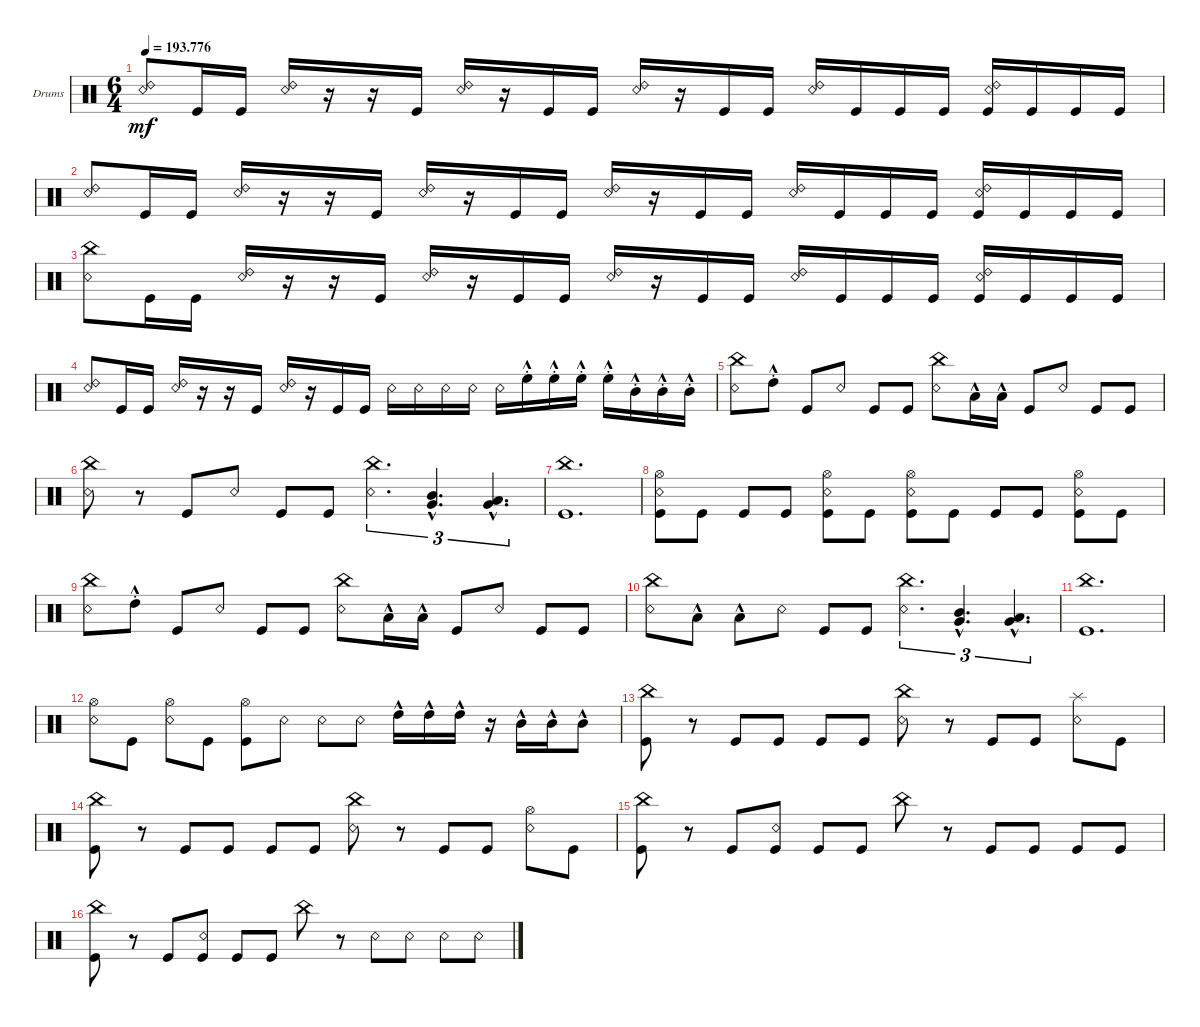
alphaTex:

\defaultSystemsLayout 4
\bracketExtendMode groupsimilarinstruments
\firstSystemTrackNameOrientation horizontal
\otherSystemsTrackNameOrientation horizontal
\track ("Drumkit" "Drums") {mute multiBarRest instrument percussion}
\staff {score}
\articulation defaults
\ts (6 4)
\tempo
193.776
\accidentals auto
\clef neutral
\ottava regular
\simile none
\scale
0.333333
\ks c
("Snare (rim shot)" "Ride (bell) 2").8{dy mf} "Kick (hit)".16 "Kick (hit)".16 ("Snare (rim shot)" "Ride (bell) 2").16 r.16 r.16 "Kick (hit)".16 ("Ride (bell) 2" "Snare (rim shot)").16 r.16 "Kick (hit)".16 "Kick (hit)".16 ("Snare (rim shot)" "Ride (bell) 2").16 r.16 "Kick (hit)".16 "Kick (hit)".16 ("Snare (rim shot)" "Ride (bell) 2").16 "Kick (hit)".16 "Kick (hit)".16 "Kick (hit)".16 ("Kick (hit)" "Snare (rim shot)" "Ride (bell) 2").16 "Kick (hit)".16 "Kick (hit)".16 "Kick (hit)".16 |
\scale
0.333333 ("Snare (rim shot)" "Ride (bell) 2").8 "Kick (hit)".16 "Kick (hit)".16 ("Snare (rim shot)" "Ride (bell) 2").16 r.16 r.16 "Kick (hit)".16 ("Ride (bell) 2" "Snare (rim shot)").16 r.16 "Kick (hit)".16 "Kick (hit)".16 ("Snare (rim shot)" "Ride (bell) 2").16 r.16 "Kick (hit)".16 "Kick (hit)".16 ("Snare (rim shot)" "Ride (bell) 2").16 "Kick (hit)".16 "Kick (hit)".16 "Kick (hit)".16 ("Kick (hit)" "Snare (rim shot)" "Ride (bell) 2").16 "Kick (hit)".16 "Kick (hit)".16 "Kick (hit)".16 |
\scale
0.333333 ("Snare (rim shot)" "China (hit)").8 "Kick (hit)".16 "Kick (hit)".16 ("Snare (rim shot)" "Ride (bell) 2").16 r.16 r.16 "Kick (hit)".16 ("Ride (bell) 2" "Snare (rim shot)").16 r.16 "Kick (hit)".16 "Kick (hit)".16 ("Snare (rim shot)" "Ride (bell) 2").16 r.16 "Kick (hit)".16 "Kick (hit)".16 ("Snare (rim shot)" "Ride (bell) 2").16 "Kick (hit)".16 "Kick (hit)".16 "Kick (hit)".16 ("Kick (hit)" "Snare (rim shot)" "Ride (bell) 2").16 "Kick (hit)".16 "Kick (hit)".16 "Kick (hit)".16 |
\scale
0.333333 ("Snare (rim shot)" "Ride (bell) 2").8 "Kick (hit)".16 "Kick (hit)".16 ("Snare (rim shot)" "Ride (bell) 2").16 r.16 r.16 "Kick (hit)".16 ("Ride (bell) 2" "Snare (rim shot)").16 r.16 "Kick (hit)".16 "Kick (hit)".16 "Snare (rim shot)".16 "Snare (rim shot)".16 "Snare (rim shot)".16 "Snare (rim shot)".16 "Snare (rim shot)".16 "High Floor Tom (hit)"{hac st}.16 "High Floor Tom (hit)"{hac st}.16 "High Floor Tom (hit)"{hac st}.16 "High Floor Tom (hit)"{hac st}.16 "Mid Tom (hit)"{hac st}.16 "Mid Tom (hit)"{hac st}.16 "Mid Tom (hit)"{hac st}.16 |
\scale
0.333333 ("China (hit)" "Snare (rim shot)").8 "High Tom (hit)"{hac st}.8 "Kick (hit)".8 "Snare (rim shot)".8 "Kick (hit)".8 "Kick (hit)".8 ("China (hit)" "Snare (rim shot)").8 "Low Tom (hit)"{hac}.16 "Low Tom (hit)"{hac}.16 "Kick (hit)".8 "Snare (rim shot)".8 "Kick (hit)".8 "Kick (hit)".8 |
\scale
0.333333 ("China (hit)" "Snare (rim shot)").8 r.8 "Kick (hit)".8 "Snare (rim shot)".8 "Kick (hit)".8 "Kick (hit)".8 ("China (hit)" "Snare (rim shot)").4{d tu (3 2)} ("Very Low Tom (hit)"{hac} "Mid Tom (hit)"{hac}).4{d tu (3 2)} ("Very Low Tom (hit)"{hac} "Low Tom (hit)"{hac}).4{d tu (3 2)} |
\scale
0.333333 ("Kick (hit)" "China (hit)").1{d} |
\scale
0.333333 ("Snare (rim shot)" "Kick (hit)" "Hi-Hat (open)").8 "Kick (hit)".8 "Kick (hit)".8 "Kick (hit)".8 ("Kick (hit)" "Snare (rim shot)" "Hi-Hat (open)").8 "Kick (hit)".8 ("Snare (rim shot)" "Kick (hit)" "Hi-Hat (open)").8 "Kick (hit)".8 "Kick (hit)".8 "Kick (hit)".8 ("Kick (hit)" "Snare (rim shot)" "Hi-Hat (open)").8 "Kick (hit)".8 |
\scale
0.333333 ("China (hit)" "Snare (rim shot)").8 "High Tom (hit)"{hac st}.8 "Kick (hit)".8 "Snare (rim shot)".8 "Kick (hit)".8 "Kick (hit)".8 ("China (hit)" "Snare (rim shot)").8 "Low Tom (hit)"{hac}.16 "Low Tom (hit)"{hac}.16 "Kick (hit)".8 "Snare (rim shot)".8 "Kick (hit)".8 "Kick (hit)".8 |
\scale
0.333333 ("China (hit)" "Snare (rim shot)").8 "Low Tom (hit)"{hac}.8 "Low Tom (hit)"{hac}.8 "Snare (rim shot)".8 "Kick (hit)".8 "Kick (hit)".8 ("China (hit)" "Snare (rim shot)").4{d tu (3 2)} ("Very Low Tom (hit)"{hac} "Mid Tom (hit)"{hac}).4{d tu (3 2)} ("Very Low Tom (hit)"{hac} "Low Tom (hit)"{hac}).4{d tu (3 2)} |
\scale
0.333333 ("Kick (hit)" "China (hit)").1{d} |
\scale
0.333333 ("Snare (rim shot)" "Hi-Hat (open)").8 "Kick (hit)".8 ("Snare (rim shot)" "Hi-Hat (open)").8 "Kick (hit)".8 ("Kick (hit)" "Hi-Hat (open)").8 "Snare (rim shot)".8 "Snare (rim shot)".8 "Snare (rim shot)".8 "High Tom (hit)"{hac}.16 "High Tom (hit)"{hac}.16 "High Tom (hit)"{hac}.16 r.16 "Mid Tom (hit)"{hac}.16 "Mid Tom (hit)"{hac}.16 "Mid Tom (hit)"{hac}.8 |
("China (hit)" "Kick (hit)").8 r.8 "Kick (hit)".8 "Kick (hit)".8 "Kick (hit)".8 "Kick (hit)".8 ("Snare (rim shot)" "China (hit)").8 r.8 "Kick (hit)".8 "Kick (hit)".8 ("Snare (rim shot)" "Splash (hit)").8 "Kick (hit)".8 |
\scale
0.333333 ("China (hit)" "Kick (hit)").8 r.8 "Kick (hit)".8 "Kick (hit)".8 "Kick (hit)".8 "Kick (hit)".8 ("Snare (rim shot)" "China (hit)").8 r.8 "Kick (hit)".8 "Kick (hit)".8 ("Snare (rim shot)" "Hi-Hat (open)").8 "Kick (hit)".8 |
\scale
0.333333 ("China (hit)" "Kick (hit)").8 r.8 "Kick (hit)".8 ("Kick (hit)" "Snare (rim shot)").8 "Kick (hit)".8 "Kick (hit)".8 "China (hit)".8 r.8 "Kick (hit)".8 "Kick (hit)".8 "Kick (hit)".8 "Kick (hit)".8 |
\scale
0.333333 ("China (hit)" "Kick (hit)").8 r.8 "Kick (hit)".8 ("Kick (hit)" "Snare (rim shot)").8 "Kick (hit)".8 "Kick (hit)".8 "China (hit)".8 r.8 "Snare (rim shot)".8 "Snare (rim shot)".8 "Snare (rim shot)".8 "Snare (rim shot)".8
